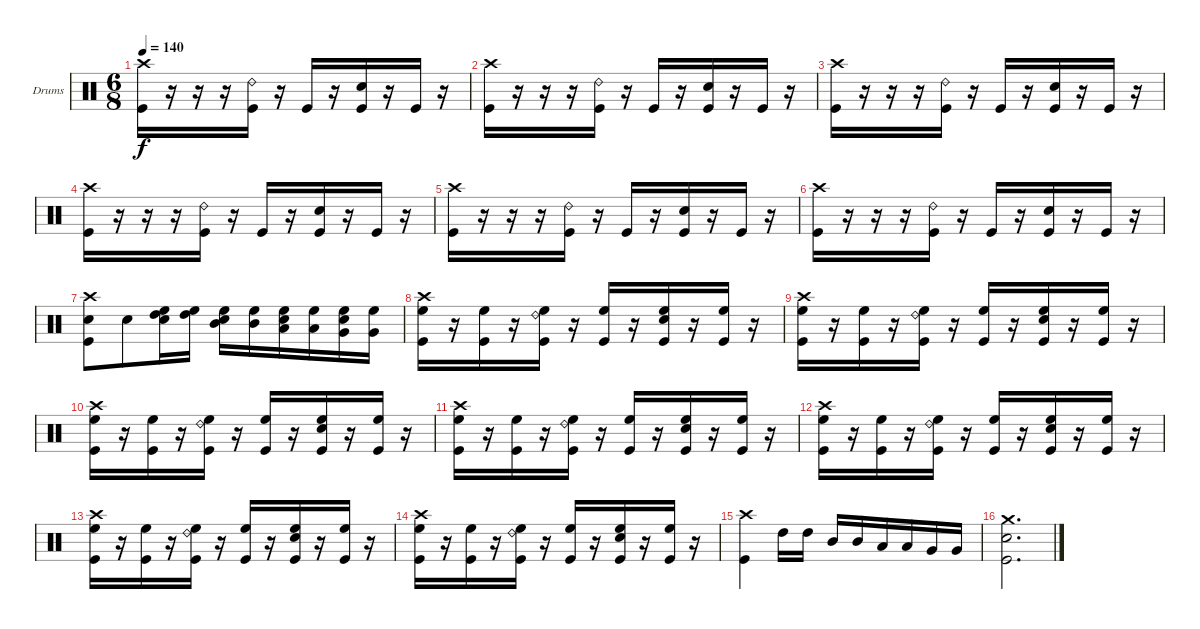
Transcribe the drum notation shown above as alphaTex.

\defaultSystemsLayout 4
\bracketExtendMode groupsimilarinstruments
\firstSystemTrackNameOrientation horizontal
\otherSystemsTrackNameOrientation horizontal
\track ("Drumkit" "Drums") {instrument percussion}
\staff {score}
\articulation defaults
\ts (6 8)
\tempo 140
\clef neutral
\scale
0.333333
\ks c
("Crash high (hit)" "Kick (hit)").16{dy f} r.16 r.16 r.16 ("Ride (bell) 2" "Kick (hit)").16 r.16 "Kick (hit)".16 r.16 ("Snare (hit) 2" "Kick (hit)").16 r.16 "Kick (hit)".16 r.16 |
\scale
0.333333 ("Crash high (hit)" "Kick (hit)").16 r.16 r.16 r.16 ("Ride (bell) 2" "Kick (hit)").16 r.16 "Kick (hit)".16 r.16 ("Snare (hit) 2" "Kick (hit)").16 r.16 "Kick (hit)".16 r.16 |
\scale
0.333333 ("Crash high (hit)" "Kick (hit)").16 r.16 r.16 r.16 ("Ride (bell) 2" "Kick (hit)").16 r.16 "Kick (hit)".16 r.16 ("Snare (hit) 2" "Kick (hit)").16 r.16 "Kick (hit)".16 r.16 |
\scale
0.333333 ("Crash high (hit)" "Kick (hit)").16 r.16 r.16 r.16 ("Ride (bell) 2" "Kick (hit)").16 r.16 "Kick (hit)".16 r.16 ("Snare (hit) 2" "Kick (hit)").16 r.16 "Kick (hit)".16 r.16 |
\scale
0.333333 ("Crash high (hit)" "Kick (hit)").16 r.16 r.16 r.16 ("Ride (bell) 2" "Kick (hit)").16 r.16 "Kick (hit)".16 r.16 ("Snare (hit) 2" "Kick (hit)").16 r.16 "Kick (hit)".16 r.16 |
\scale
0.333333 ("Crash high (hit)" "Kick (hit)").16 r.16 r.16 r.16 ("Ride (bell) 2" "Kick (hit)").16 r.16 "Kick (hit)".16 r.16 ("Snare (hit) 2" "Kick (hit)").16 r.16 "Kick (hit)".16 r.16 |
\scale
0.333333 ("Crash high (hit)" "Kick (hit)" "Snare (hit) 2").8 "Snare (hit) 2".8 ("High Floor Tom (hit)" "High Tom (hit)" "Snare (hit) 2").16 ("High Floor Tom (hit)" "High Tom (hit)").16 ("High Floor Tom (hit)" "Mid Tom (hit)" "Snare (hit) 2").16 ("High Floor Tom (hit)" "Mid Tom (hit)").16 ("High Floor Tom (hit)" "Low Tom (hit)" "Snare (hit) 2").16 ("High Floor Tom (hit)" "Low Tom (hit)").16 ("High Floor Tom (hit)" "Very Low Tom (hit)" "Snare (hit) 2").16 ("High Floor Tom (hit)" "Very Low Tom (hit)").16 |
\scale
0.333333 ("Crash high (hit)" "High Floor Tom (hit)" "Kick (hit)").16 r.16 ("High Floor Tom (hit)" "Kick (hit)").16 r.16 ("Ride (bell) 2" "High Floor Tom (hit)" "Kick (hit)").16 r.16 ("High Floor Tom (hit)" "Kick (hit)").16 r.16 ("High Floor Tom (hit)" "Snare (hit) 2" "Kick (hit)").16 r.16 ("High Floor Tom (hit)" "Kick (hit)").16 r.16 |
\scale
0.333333 ("Crash high (hit)" "High Floor Tom (hit)" "Kick (hit)").16 r.16 ("High Floor Tom (hit)" "Kick (hit)").16 r.16 ("Ride (bell) 2" "High Floor Tom (hit)" "Kick (hit)").16 r.16 ("High Floor Tom (hit)" "Kick (hit)").16 r.16 ("High Floor Tom (hit)" "Snare (hit) 2" "Kick (hit)").16 r.16 ("High Floor Tom (hit)" "Kick (hit)").16 r.16 |
\scale
0.333333 ("Crash high (hit)" "High Floor Tom (hit)" "Kick (hit)").16 r.16 ("High Floor Tom (hit)" "Kick (hit)").16 r.16 ("Ride (bell) 2" "High Floor Tom (hit)" "Kick (hit)").16 r.16 ("High Floor Tom (hit)" "Kick (hit)").16 r.16 ("High Floor Tom (hit)" "Snare (hit) 2" "Kick (hit)").16 r.16 ("High Floor Tom (hit)" "Kick (hit)").16 r.16 |
\scale
0.333333 ("Crash high (hit)" "High Floor Tom (hit)" "Kick (hit)").16 r.16 ("High Floor Tom (hit)" "Kick (hit)").16 r.16 ("Ride (bell) 2" "High Floor Tom (hit)" "Kick (hit)").16 r.16 ("High Floor Tom (hit)" "Kick (hit)").16 r.16 ("High Floor Tom (hit)" "Snare (hit) 2" "Kick (hit)").16 r.16 ("High Floor Tom (hit)" "Kick (hit)").16 r.16 |
\scale
0.333333 ("Crash high (hit)" "High Floor Tom (hit)" "Kick (hit)").16 r.16 ("High Floor Tom (hit)" "Kick (hit)").16 r.16 ("Ride (bell) 2" "High Floor Tom (hit)" "Kick (hit)").16 r.16 ("High Floor Tom (hit)" "Kick (hit)").16 r.16 ("High Floor Tom (hit)" "Snare (hit) 2" "Kick (hit)").16 r.16 ("High Floor Tom (hit)" "Kick (hit)").16 r.16 |
\scale
0.333333 ("Crash high (hit)" "High Floor Tom (hit)" "Kick (hit)").16 r.16 ("High Floor Tom (hit)" "Kick (hit)").16 r.16 ("Ride (bell) 2" "High Floor Tom (hit)" "Kick (hit)").16 r.16 ("High Floor Tom (hit)" "Kick (hit)").16 r.16 ("High Floor Tom (hit)" "Snare (hit) 2" "Kick (hit)").16 r.16 ("High Floor Tom (hit)" "Kick (hit)").16 r.16 |
\scale
0.333333 ("Crash high (hit)" "High Floor Tom (hit)" "Kick (hit)").16 r.16 ("High Floor Tom (hit)" "Kick (hit)").16 r.16 ("Ride (bell) 2" "High Floor Tom (hit)" "Kick (hit)").16 r.16 ("High Floor Tom (hit)" "Kick (hit)").16 r.16 ("High Floor Tom (hit)" "Snare (hit) 2" "Kick (hit)").16 r.16 ("High Floor Tom (hit)" "Kick (hit)").16 r.16 |
\scale
0.333333 ("Crash high (hit)" "Kick (hit)").4 "High Tom (hit)".16 "High Tom (hit)".16 "Mid Tom (hit)".16 "Mid Tom (hit)".16 "Low Tom (hit)".16 "Low Tom (hit)".16 "Very Low Tom (hit)".16 "Very Low Tom (hit)".16 |
\scale
0.333333 ("Crash medium (hit)" "Snare (hit) 2" "Kick (hit)").2{d}
